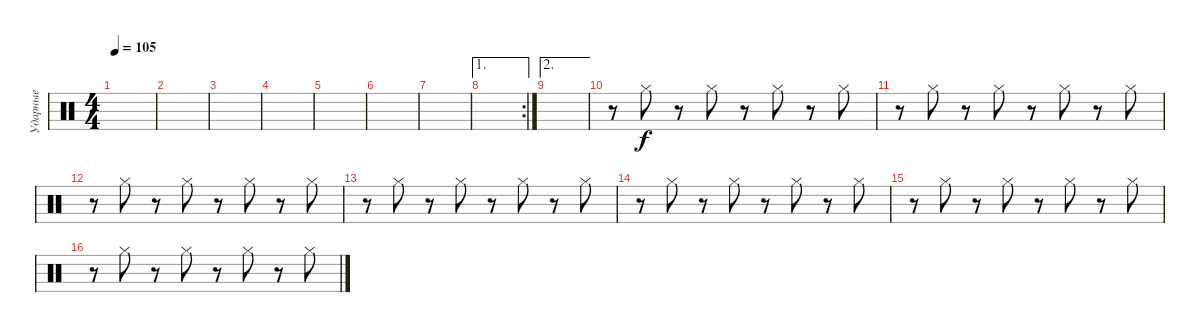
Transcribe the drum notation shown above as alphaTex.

\track ("Ударные" "Ударные") {instrument percussion}
\staff {score}
\articulation defaults
\ts (4 4)
\tempo 105
\clef neutral
\ks c
|
|
|
|
|
|
|
\ae 1
\rc 2
|
\ae 2
|
r.8 "Hi-Hat (closed)".8 r.8 "Hi-Hat (closed)".8 r.8 "Hi-Hat (closed)".8 r.8 "Hi-Hat (closed)".8 |
r.8 "Hi-Hat (closed)".8 r.8 "Hi-Hat (closed)".8 r.8 "Hi-Hat (closed)".8 r.8 "Hi-Hat (closed)".8 |
r.8 "Hi-Hat (closed)".8 r.8 "Hi-Hat (closed)".8 r.8 "Hi-Hat (closed)".8 r.8 "Hi-Hat (closed)".8 |
r.8 "Hi-Hat (closed)".8 r.8 "Hi-Hat (closed)".8 r.8 "Hi-Hat (closed)".8 r.8 "Hi-Hat (closed)".8 |
r.8 "Hi-Hat (closed)".8 r.8 "Hi-Hat (closed)".8 r.8 "Hi-Hat (closed)".8 r.8 "Hi-Hat (closed)".8 |
r.8 "Hi-Hat (closed)".8 r.8 "Hi-Hat (closed)".8 r.8 "Hi-Hat (closed)".8 r.8 "Hi-Hat (closed)".8 |
r.8 "Hi-Hat (closed)".8 r.8 "Hi-Hat (closed)".8 r.8 "Hi-Hat (closed)".8 r.8 "Hi-Hat (closed)".8
